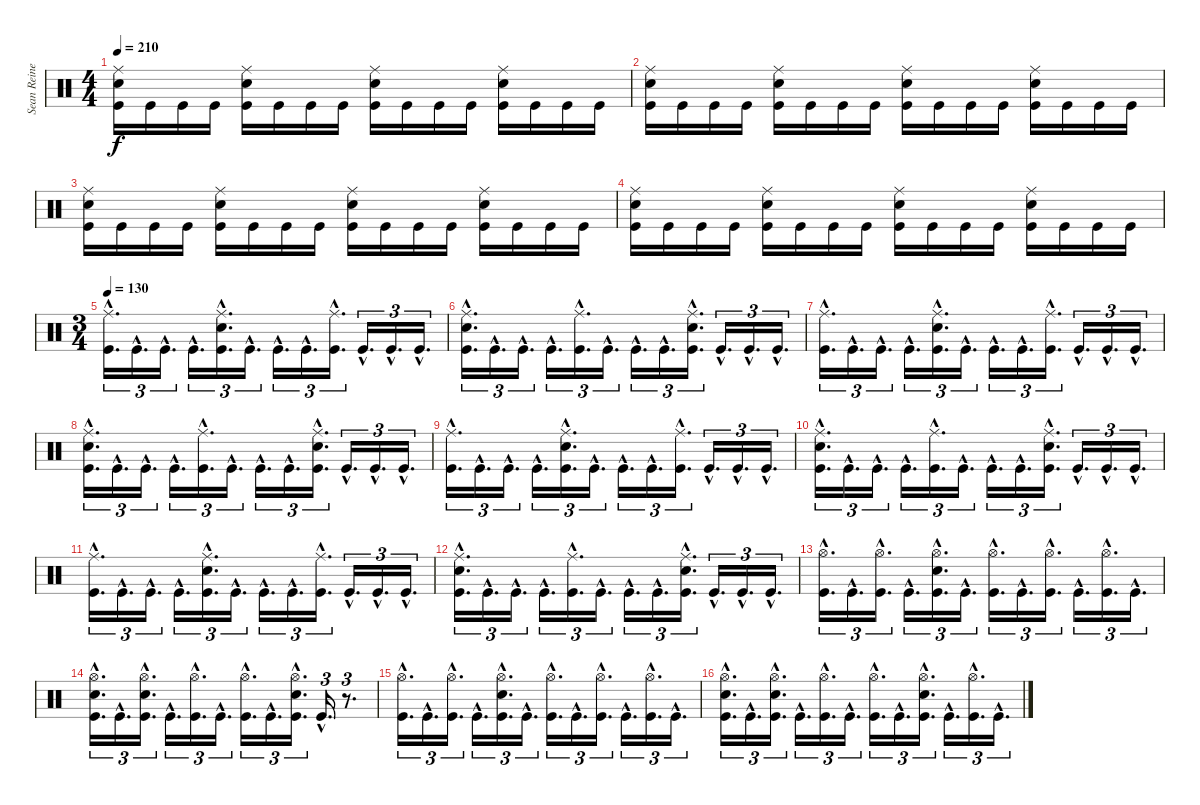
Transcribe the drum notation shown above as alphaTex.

\track ("Sean Reinert" "Sean Reine") {instrument percussion}
\staff {score}
\articulation defaults
\ts (4 4)
\tempo 210
\clef neutral
\ks c
("Ride (middle)" "Snare (hit) 2" "Kick (hit)").16{dy f} "Kick (hit)".16 "Kick (hit)".16 "Kick (hit)".16 ("Ride (middle)" "Snare (hit) 2" "Kick (hit)").16 "Kick (hit)".16 "Kick (hit)".16 "Kick (hit)".16 ("Ride (middle)" "Snare (hit) 2" "Kick (hit)").16 "Kick (hit)".16 "Kick (hit)".16 "Kick (hit)".16 ("Ride (middle)" "Snare (hit) 2" "Kick (hit)").16 "Kick (hit)".16 "Kick (hit)".16 "Kick (hit)".16 |
("Ride (middle)" "Snare (hit) 2" "Kick (hit)").16 "Kick (hit)".16 "Kick (hit)".16 "Kick (hit)".16 ("Ride (middle)" "Snare (hit) 2" "Kick (hit)").16 "Kick (hit)".16 "Kick (hit)".16 "Kick (hit)".16 ("Ride (middle)" "Snare (hit) 2" "Kick (hit)").16 "Kick (hit)".16 "Kick (hit)".16 "Kick (hit)".16 ("Ride (middle)" "Snare (hit) 2" "Kick (hit)").16 "Kick (hit)".16 "Kick (hit)".16 "Kick (hit)".16 |
("Ride (middle)" "Snare (hit) 2" "Kick (hit)").16 "Kick (hit)".16 "Kick (hit)".16 "Kick (hit)".16 ("Ride (middle)" "Snare (hit) 2" "Kick (hit)").16 "Kick (hit)".16 "Kick (hit)".16 "Kick (hit)".16 ("Ride (middle)" "Snare (hit) 2" "Kick (hit)").16 "Kick (hit)".16 "Kick (hit)".16 "Kick (hit)".16 ("Ride (middle)" "Snare (hit) 2" "Kick (hit)").16 "Kick (hit)".16 "Kick (hit)".16 "Kick (hit)".16 |
("Ride (middle)" "Snare (hit) 2" "Kick (hit)").16 "Kick (hit)".16 "Kick (hit)".16 "Kick (hit)".16 ("Ride (middle)" "Snare (hit) 2" "Kick (hit)").16 "Kick (hit)".16 "Kick (hit)".16 "Kick (hit)".16 ("Ride (middle)" "Snare (hit) 2" "Kick (hit)").16 "Kick (hit)".16 "Kick (hit)".16 "Kick (hit)".16 ("Ride (middle)" "Snare (hit) 2" "Kick (hit)").16 "Kick (hit)".16 "Kick (hit)".16 "Kick (hit)".16 |
\ts (3 4)
\tempo 130
("Ride (middle)"{hac} "Kick (hit)"{hac}).16{d tu (3 2)} "Kick (hit)"{hac}.16{d tu (3 2)} "Kick (hit)"{hac}.16{d tu (3 2)} "Kick (hit)"{hac}.16{d tu (3 2)} ("Ride (middle)"{hac} "Snare (hit) 2"{hac} "Kick (hit)"{hac}).16{d tu (3 2)} "Kick (hit)"{hac}.16{d tu (3 2)} "Kick (hit)"{hac}.16{d tu (3 2)} "Kick (hit)"{hac}.16{d tu (3 2)} ("Ride (middle)"{hac} "Kick (hit)"{hac}).16{d tu (3 2)} "Kick (hit)"{hac}.16{d tu (3 2)} "Kick (hit)"{hac}.16{d tu (3 2)} "Kick (hit)"{hac}.16{d tu (3 2)} |
("Ride (middle)"{hac} "Snare (hit) 2"{hac} "Kick (hit)"{hac}).16{d tu (3 2)} "Kick (hit)"{hac}.16{d tu (3 2)} "Kick (hit)"{hac}.16{d tu (3 2)} "Kick (hit)"{hac}.16{d tu (3 2)} ("Ride (middle)"{hac} "Kick (hit)"{hac}).16{d tu (3 2)} "Kick (hit)"{hac}.16{d tu (3 2)} "Kick (hit)"{hac}.16{d tu (3 2)} "Kick (hit)"{hac}.16{d tu (3 2)} ("Ride (middle)"{hac} "Snare (hit) 2"{hac} "Kick (hit)"{hac}).16{d tu (3 2)} "Kick (hit)"{hac}.16{d tu (3 2)} "Kick (hit)"{hac}.16{d tu (3 2)} "Kick (hit)"{hac}.16{d tu (3 2)} |
("Ride (middle)"{hac} "Kick (hit)"{hac}).16{d tu (3 2)} "Kick (hit)"{hac}.16{d tu (3 2)} "Kick (hit)"{hac}.16{d tu (3 2)} "Kick (hit)"{hac}.16{d tu (3 2)} ("Ride (middle)"{hac} "Snare (hit) 2"{hac} "Kick (hit)"{hac}).16{d tu (3 2)} "Kick (hit)"{hac}.16{d tu (3 2)} "Kick (hit)"{hac}.16{d tu (3 2)} "Kick (hit)"{hac}.16{d tu (3 2)} ("Ride (middle)"{hac} "Kick (hit)"{hac}).16{d tu (3 2)} "Kick (hit)"{hac}.16{d tu (3 2)} "Kick (hit)"{hac}.16{d tu (3 2)} "Kick (hit)"{hac}.16{d tu (3 2)} |
("Ride (middle)"{hac} "Snare (hit) 2"{hac} "Kick (hit)"{hac}).16{d tu (3 2)} "Kick (hit)"{hac}.16{d tu (3 2)} "Kick (hit)"{hac}.16{d tu (3 2)} "Kick (hit)"{hac}.16{d tu (3 2)} ("Ride (middle)"{hac} "Kick (hit)"{hac}).16{d tu (3 2)} "Kick (hit)"{hac}.16{d tu (3 2)} "Kick (hit)"{hac}.16{d tu (3 2)} "Kick (hit)"{hac}.16{d tu (3 2)} ("Ride (middle)"{hac} "Snare (hit) 2"{hac} "Kick (hit)"{hac}).16{d tu (3 2)} "Kick (hit)"{hac}.16{d tu (3 2)} "Kick (hit)"{hac}.16{d tu (3 2)} "Kick (hit)"{hac}.16{d tu (3 2)} |
("Ride (middle)"{hac} "Kick (hit)"{hac}).16{d tu (3 2)} "Kick (hit)"{hac}.16{d tu (3 2)} "Kick (hit)"{hac}.16{d tu (3 2)} "Kick (hit)"{hac}.16{d tu (3 2)} ("Ride (middle)"{hac} "Snare (hit) 2"{hac} "Kick (hit)"{hac}).16{d tu (3 2)} "Kick (hit)"{hac}.16{d tu (3 2)} "Kick (hit)"{hac}.16{d tu (3 2)} "Kick (hit)"{hac}.16{d tu (3 2)} ("Ride (middle)"{hac} "Kick (hit)"{hac}).16{d tu (3 2)} "Kick (hit)"{hac}.16{d tu (3 2)} "Kick (hit)"{hac}.16{d tu (3 2)} "Kick (hit)"{hac}.16{d tu (3 2)} |
("Ride (middle)"{hac} "Snare (hit) 2"{hac} "Kick (hit)"{hac}).16{d tu (3 2)} "Kick (hit)"{hac}.16{d tu (3 2)} "Kick (hit)"{hac}.16{d tu (3 2)} "Kick (hit)"{hac}.16{d tu (3 2)} ("Ride (middle)"{hac} "Kick (hit)"{hac}).16{d tu (3 2)} "Kick (hit)"{hac}.16{d tu (3 2)} "Kick (hit)"{hac}.16{d tu (3 2)} "Kick (hit)"{hac}.16{d tu (3 2)} ("Ride (middle)"{hac} "Snare (hit) 2"{hac} "Kick (hit)"{hac}).16{d tu (3 2)} "Kick (hit)"{hac}.16{d tu (3 2)} "Kick (hit)"{hac}.16{d tu (3 2)} "Kick (hit)"{hac}.16{d tu (3 2)} |
("Ride (middle)"{hac} "Kick (hit)"{hac}).16{d tu (3 2)} "Kick (hit)"{hac}.16{d tu (3 2)} "Kick (hit)"{hac}.16{d tu (3 2)} "Kick (hit)"{hac}.16{d tu (3 2)} ("Ride (middle)"{hac} "Snare (hit) 2"{hac} "Kick (hit)"{hac}).16{d tu (3 2)} "Kick (hit)"{hac}.16{d tu (3 2)} "Kick (hit)"{hac}.16{d tu (3 2)} "Kick (hit)"{hac}.16{d tu (3 2)} ("Ride (middle)"{hac} "Kick (hit)"{hac}).16{d tu (3 2)} "Kick (hit)"{hac}.16{d tu (3 2)} "Kick (hit)"{hac}.16{d tu (3 2)} "Kick (hit)"{hac}.16{d tu (3 2)} |
("Ride (middle)"{hac} "Snare (hit) 2"{hac} "Kick (hit)"{hac}).16{d tu (3 2)} "Kick (hit)"{hac}.16{d tu (3 2)} "Kick (hit)"{hac}.16{d tu (3 2)} "Kick (hit)"{hac}.16{d tu (3 2)} ("Ride (middle)"{hac} "Kick (hit)"{hac}).16{d tu (3 2)} "Kick (hit)"{hac}.16{d tu (3 2)} "Kick (hit)"{hac}.16{d tu (3 2)} "Kick (hit)"{hac}.16{d tu (3 2)} ("Ride (middle)"{hac} "Snare (hit) 2"{hac} "Kick (hit)"{hac}).16{d tu (3 2)} "Kick (hit)"{hac}.16{d tu (3 2)} "Kick (hit)"{hac}.16{d tu (3 2)} "Kick (hit)"{hac}.16{d tu (3 2)} |
("Hi-Hat (open)"{hac} "Kick (hit)"{hac}).16{d tu (3 2)} "Kick (hit)"{hac}.16{d tu (3 2)} ("Hi-Hat (open)"{hac} "Kick (hit)"{hac}).16{d tu (3 2)} "Kick (hit)"{hac}.16{d tu (3 2)} ("Hi-Hat (open)"{hac} "Snare (hit) 2"{hac} "Kick (hit)"{hac}).16{d tu (3 2)} "Kick (hit)"{hac}.16{d tu (3 2)} ("Hi-Hat (open)"{hac} "Kick (hit)"{hac}).16{d tu (3 2)} "Kick (hit)"{hac}.16{d tu (3 2)} ("Hi-Hat (open)"{hac} "Kick (hit)"{hac}).16{d tu (3 2)} "Kick (hit)"{hac}.16{d tu (3 2)} ("Hi-Hat (open)"{hac} "Kick (hit)"{hac}).16{d tu (3 2)} "Kick (hit)"{hac}.16{d tu (3 2)} |
("Hi-Hat (open)"{hac} "Snare (hit) 2"{hac} "Kick (hit)"{hac}).16{d tu (3 2)} "Kick (hit)"{hac}.16{d tu (3 2)} ("Hi-Hat (open)"{hac} "Snare (hit) 2"{hac} "Kick (hit)"{hac}).16{d tu (3 2)} "Kick (hit)"{hac}.16{d tu (3 2)} ("Hi-Hat (open)"{hac} "Kick (hit)"{hac}).16{d tu (3 2)} "Kick (hit)"{hac}.16{d tu (3 2)} ("Hi-Hat (open)"{hac} "Kick (hit)"{hac}).16{d tu (3 2)} "Kick (hit)"{hac}.16{d tu (3 2)} ("Hi-Hat (open)"{hac} "Snare (hit) 2"{hac} "Kick (hit)"{hac}).16{d tu (3 2)} "Kick (hit)"{hac}.16{d tu (3 2)} r.8{d tu (3 2)} |
("Hi-Hat (open)"{hac} "Kick (hit)"{hac}).16{d tu (3 2)} "Kick (hit)"{hac}.16{d tu (3 2)} ("Hi-Hat (open)"{hac} "Kick (hit)"{hac}).16{d tu (3 2)} "Kick (hit)"{hac}.16{d tu (3 2)} ("Hi-Hat (open)"{hac} "Snare (hit) 2"{hac} "Kick (hit)"{hac}).16{d tu (3 2)} "Kick (hit)"{hac}.16{d tu (3 2)} ("Hi-Hat (open)"{hac} "Kick (hit)"{hac}).16{d tu (3 2)} "Kick (hit)"{hac}.16{d tu (3 2)} ("Hi-Hat (open)"{hac} "Kick (hit)"{hac}).16{d tu (3 2)} "Kick (hit)"{hac}.16{d tu (3 2)} ("Hi-Hat (open)"{hac} "Kick (hit)"{hac}).16{d tu (3 2)} "Kick (hit)"{hac}.16{d tu (3 2)} |
("Hi-Hat (open)"{hac} "Snare (hit) 2"{hac} "Kick (hit)"{hac}).16{d tu (3 2)} "Kick (hit)"{hac}.16{d tu (3 2)} ("Hi-Hat (open)"{hac} "Snare (hit) 2"{hac} "Kick (hit)"{hac}).16{d tu (3 2)} "Kick (hit)"{hac}.16{d tu (3 2)} ("Hi-Hat (open)"{hac} "Kick (hit)"{hac}).16{d tu (3 2)} "Kick (hit)"{hac}.16{d tu (3 2)} ("Hi-Hat (open)"{hac} "Kick (hit)"{hac}).16{d tu (3 2)} "Kick (hit)"{hac}.16{d tu (3 2)} ("Hi-Hat (open)"{hac} "Snare (hit) 2"{hac} "Kick (hit)"{hac}).16{d tu (3 2)} "Kick (hit)"{hac}.16{d tu (3 2)} ("Hi-Hat (open)"{hac} "Kick (hit)"{hac}).16{d tu (3 2)} "Kick (hit)"{hac}.16{d tu (3 2)}
